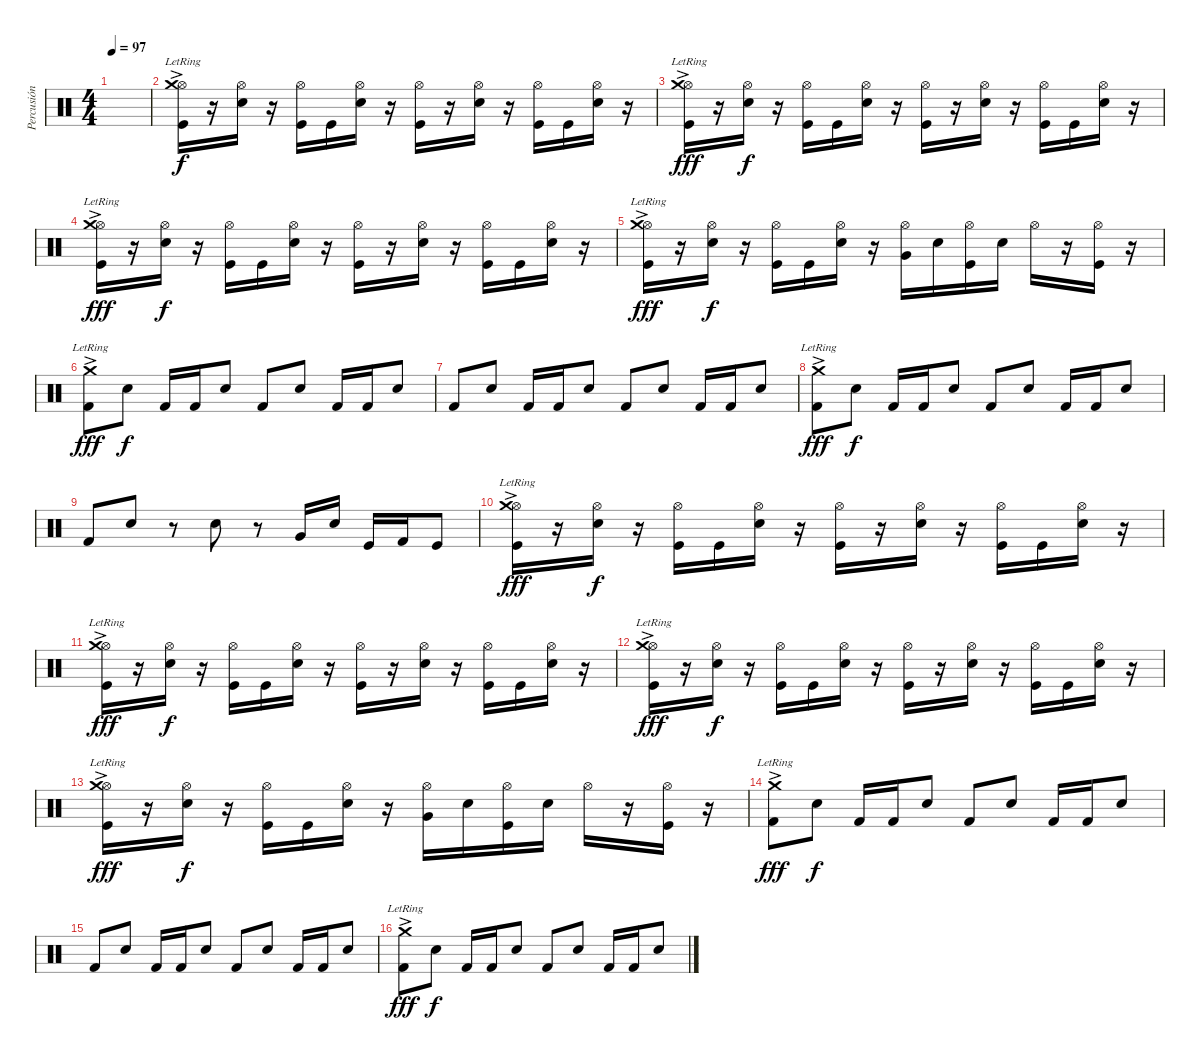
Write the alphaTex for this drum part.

\track ("Percusión" "Percusión") {instrument percussion}
\staff {score}
\articulation defaults
\ts (4 4)
\tempo 97
\clef neutral
\ks c
|
("Hi-Hat (open)" "Crash medium (hit)"{ac lr} "Kick (hit)").16 r.16 ("Hi-Hat (open)" "Snare (hit) 2").16{dy f} r.16 ("Hi-Hat (open)" "Kick (hit)").16 "Kick (hit)".16 ("Hi-Hat (open)" "Snare (hit) 2").16 r.16 ("Hi-Hat (open)" "Kick (hit)").16 r.16 ("Hi-Hat (open)" "Snare (hit) 2").16 r.16 ("Hi-Hat (open)" "Kick (hit)").16 "Kick (hit)".16 ("Hi-Hat (open)" "Snare (hit) 2").16 r.16 |
("Hi-Hat (open)" "Crash medium (hit)"{ac lr} "Kick (hit)").16{dy fff} r.16 ("Hi-Hat (open)" "Snare (hit) 2").16{dy f} r.16 ("Hi-Hat (open)" "Kick (hit)").16 "Kick (hit)".16 ("Hi-Hat (open)" "Snare (hit) 2").16 r.16 ("Hi-Hat (open)" "Kick (hit)").16 r.16 ("Hi-Hat (open)" "Snare (hit) 2").16 r.16 ("Hi-Hat (open)" "Kick (hit)").16 "Kick (hit)".16 ("Hi-Hat (open)" "Snare (hit) 2").16 r.16 |
("Hi-Hat (open)" "Crash medium (hit)"{ac lr} "Kick (hit)").16{dy fff} r.16 ("Hi-Hat (open)" "Snare (hit) 2").16{dy f} r.16 ("Hi-Hat (open)" "Kick (hit)").16 "Kick (hit)".16 ("Hi-Hat (open)" "Snare (hit) 2").16 r.16 ("Hi-Hat (open)" "Kick (hit)").16 r.16 ("Hi-Hat (open)" "Snare (hit) 2").16 r.16 ("Hi-Hat (open)" "Kick (hit)").16 "Kick (hit)".16 ("Hi-Hat (open)" "Snare (hit) 2").16 r.16 |
("Hi-Hat (open)" "Crash medium (hit)"{ac lr} "Kick (hit)").16{dy fff} r.16 ("Hi-Hat (open)" "Snare (hit) 2").16{dy f} r.16 ("Hi-Hat (open)" "Kick (hit)").16 "Kick (hit)".16 ("Hi-Hat (open)" "Electric Snare (hit)").16 r.16 ("Hi-Hat (open)" "Very Low Tom (hit)").16 "Electric Snare (hit)".16 ("Hi-Hat (open)" "Kick (hit)").16 "Electric Snare (hit)".16 "Hi-Hat (open)".16 r.16 ("Hi-Hat (open)" "Kick (hit)").16 r.16 |
("Crash medium (hit)"{ac lr} "Kick (hit) 2").8{dy fff} "Snare (hit) 2".8{dy f} "Kick (hit) 2".16 "Kick (hit) 2".16 "Snare (hit) 2".8 "Kick (hit) 2".8 "Snare (hit) 2".8 "Kick (hit) 2".16 "Kick (hit) 2".16 "Snare (hit) 2".8 |
"Kick (hit) 2".8 "Snare (hit) 2".8 "Kick (hit) 2".16 "Kick (hit) 2".16 "Snare (hit) 2".8 "Kick (hit) 2".8 "Snare (hit) 2".8 "Kick (hit) 2".16 "Kick (hit) 2".16 "Snare (hit) 2".8 |
("Crash medium (hit)"{ac lr} "Kick (hit) 2").8{dy fff} "Snare (hit) 2".8{dy f} "Kick (hit) 2".16 "Kick (hit) 2".16 "Snare (hit) 2".8 "Kick (hit) 2".8 "Snare (hit) 2".8 "Kick (hit) 2".16 "Kick (hit) 2".16 "Snare (hit) 2".8 |
"Kick (hit) 2".8 "Snare (hit) 2".8 r.8 "Snare (hit) 2".8 r.8 "Very Low Tom (hit)".16 "Electric Snare (hit)".16 "Kick (hit)".16 "Kick (hit) 2".16 "Kick (hit)".8 |
("Hi-Hat (open)" "Crash medium (hit)"{ac lr} "Kick (hit)").16{dy fff} r.16 ("Hi-Hat (open)" "Snare (hit) 2").16{dy f} r.16 ("Hi-Hat (open)" "Kick (hit)").16 "Kick (hit)".16 ("Hi-Hat (open)" "Snare (hit) 2").16 r.16 ("Hi-Hat (open)" "Kick (hit)").16 r.16 ("Hi-Hat (open)" "Snare (hit) 2").16 r.16 ("Hi-Hat (open)" "Kick (hit)").16 "Kick (hit)".16 ("Hi-Hat (open)" "Snare (hit) 2").16 r.16 |
("Hi-Hat (open)" "Crash medium (hit)"{ac lr} "Kick (hit)").16{dy fff} r.16 ("Hi-Hat (open)" "Snare (hit) 2").16{dy f} r.16 ("Hi-Hat (open)" "Kick (hit)").16 "Kick (hit)".16 ("Hi-Hat (open)" "Snare (hit) 2").16 r.16 ("Hi-Hat (open)" "Kick (hit)").16 r.16 ("Hi-Hat (open)" "Snare (hit) 2").16 r.16 ("Hi-Hat (open)" "Kick (hit)").16 "Kick (hit)".16 ("Hi-Hat (open)" "Snare (hit) 2").16 r.16 |
("Hi-Hat (open)" "Crash medium (hit)"{ac lr} "Kick (hit)").16{dy fff} r.16 ("Hi-Hat (open)" "Snare (hit) 2").16{dy f} r.16 ("Hi-Hat (open)" "Kick (hit)").16 "Kick (hit)".16 ("Hi-Hat (open)" "Snare (hit) 2").16 r.16 ("Hi-Hat (open)" "Kick (hit)").16 r.16 ("Hi-Hat (open)" "Snare (hit) 2").16 r.16 ("Hi-Hat (open)" "Kick (hit)").16 "Kick (hit)".16 ("Hi-Hat (open)" "Snare (hit) 2").16 r.16 |
("Hi-Hat (open)" "Crash medium (hit)"{ac lr} "Kick (hit)").16{dy fff} r.16 ("Hi-Hat (open)" "Snare (hit) 2").16{dy f} r.16 ("Hi-Hat (open)" "Kick (hit)").16 "Kick (hit)".16 ("Hi-Hat (open)" "Electric Snare (hit)").16 r.16 ("Hi-Hat (open)" "Very Low Tom (hit)").16 "Electric Snare (hit)".16 ("Hi-Hat (open)" "Kick (hit)").16 "Electric Snare (hit)".16 "Hi-Hat (open)".16 r.16 ("Hi-Hat (open)" "Kick (hit)").16 r.16 |
("Crash medium (hit)"{ac lr} "Kick (hit) 2").8{dy fff} "Snare (hit) 2".8{dy f} "Kick (hit) 2".16 "Kick (hit) 2".16 "Snare (hit) 2".8 "Kick (hit) 2".8 "Snare (hit) 2".8 "Kick (hit) 2".16 "Kick (hit) 2".16 "Snare (hit) 2".8 |
"Kick (hit) 2".8 "Snare (hit) 2".8 "Kick (hit) 2".16 "Kick (hit) 2".16 "Snare (hit) 2".8 "Kick (hit) 2".8 "Snare (hit) 2".8 "Kick (hit) 2".16 "Kick (hit) 2".16 "Snare (hit) 2".8 |
("Crash medium (hit)"{ac lr} "Kick (hit) 2").8{dy fff} "Snare (hit) 2".8{dy f} "Kick (hit) 2".16 "Kick (hit) 2".16 "Snare (hit) 2".8 "Kick (hit) 2".8 "Snare (hit) 2".8 "Kick (hit) 2".16 "Kick (hit) 2".16 "Snare (hit) 2".8
